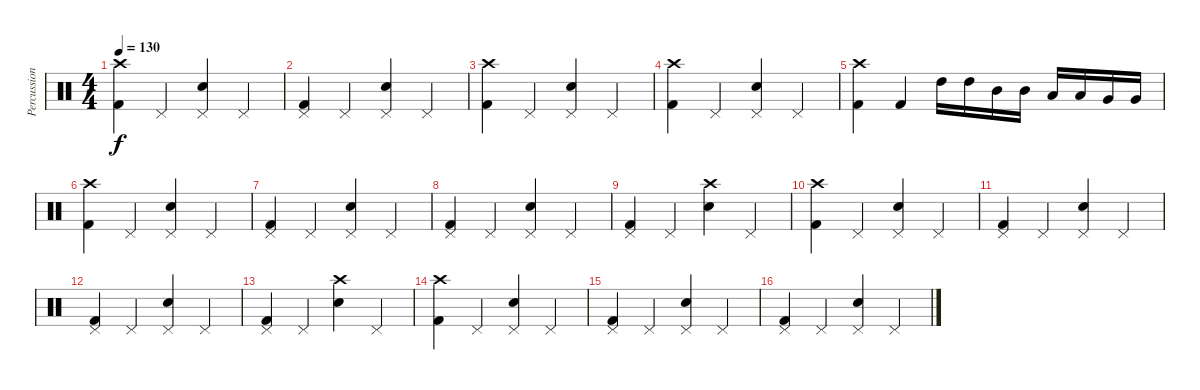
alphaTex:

\track ("Percussions" "Percussion") {instrument percussion}
\staff {score}
\articulation defaults
\ts (4 4)
\tempo 130
\clef neutral
\ks c
("Crash high (hit)" "Kick (hit) 2").4{dy f} "Pedal Hi-Hat (hit)".4 ("Pedal Hi-Hat (hit)" "Snare (hit) 2").4 "Pedal Hi-Hat (hit)".4 |
("Pedal Hi-Hat (hit)" "Kick (hit) 2").4 "Pedal Hi-Hat (hit)".4 ("Pedal Hi-Hat (hit)" "Snare (hit) 2").4 "Pedal Hi-Hat (hit)".4 |
("Crash high (hit)" "Kick (hit) 2").4 "Pedal Hi-Hat (hit)".4 ("Pedal Hi-Hat (hit)" "Snare (hit) 2").4 "Pedal Hi-Hat (hit)".4 |
("Crash high (hit)" "Kick (hit) 2").4 "Pedal Hi-Hat (hit)".4 ("Pedal Hi-Hat (hit)" "Snare (hit) 2").4 "Pedal Hi-Hat (hit)".4 |
("Crash high (hit)" "Kick (hit) 2").4 "Kick (hit) 2".4 "High Tom (hit)".16 "High Tom (hit)".16 "Mid Tom (hit)".16 "Mid Tom (hit)".16 "Low Tom (hit)".16 "Low Tom (hit)".16 "Very Low Tom (hit)".16 "Very Low Tom (hit)".16 |
("Crash high (hit)" "Kick (hit) 2").4 "Pedal Hi-Hat (hit)".4 ("Pedal Hi-Hat (hit)" "Snare (hit) 2").4 "Pedal Hi-Hat (hit)".4 |
("Pedal Hi-Hat (hit)" "Kick (hit) 2").4 "Pedal Hi-Hat (hit)".4 ("Pedal Hi-Hat (hit)" "Snare (hit) 2").4 "Pedal Hi-Hat (hit)".4 |
("Pedal Hi-Hat (hit)" "Kick (hit) 2").4 "Pedal Hi-Hat (hit)".4 ("Pedal Hi-Hat (hit)" "Snare (hit) 2").4 "Pedal Hi-Hat (hit)".4 |
("Pedal Hi-Hat (hit)" "Kick (hit) 2").4 "Pedal Hi-Hat (hit)".4 ("Crash high (hit)" "Snare (hit) 2").4 "Pedal Hi-Hat (hit)".4 |
("Crash high (hit)" "Kick (hit) 2").4 "Pedal Hi-Hat (hit)".4 ("Pedal Hi-Hat (hit)" "Snare (hit) 2").4 "Pedal Hi-Hat (hit)".4 |
("Pedal Hi-Hat (hit)" "Kick (hit) 2").4 "Pedal Hi-Hat (hit)".4 ("Pedal Hi-Hat (hit)" "Snare (hit) 2").4 "Pedal Hi-Hat (hit)".4 |
("Pedal Hi-Hat (hit)" "Kick (hit) 2").4 "Pedal Hi-Hat (hit)".4 ("Pedal Hi-Hat (hit)" "Snare (hit) 2").4 "Pedal Hi-Hat (hit)".4 |
("Pedal Hi-Hat (hit)" "Kick (hit) 2").4 "Pedal Hi-Hat (hit)".4 ("Crash high (hit)" "Snare (hit) 2").4 "Pedal Hi-Hat (hit)".4 |
("Crash high (hit)" "Kick (hit) 2").4 "Pedal Hi-Hat (hit)".4 ("Pedal Hi-Hat (hit)" "Snare (hit) 2").4 "Pedal Hi-Hat (hit)".4 |
("Pedal Hi-Hat (hit)" "Kick (hit) 2").4 "Pedal Hi-Hat (hit)".4 ("Pedal Hi-Hat (hit)" "Snare (hit) 2").4 "Pedal Hi-Hat (hit)".4 |
("Pedal Hi-Hat (hit)" "Kick (hit) 2").4 "Pedal Hi-Hat (hit)".4 ("Pedal Hi-Hat (hit)" "Snare (hit) 2").4 "Pedal Hi-Hat (hit)".4
